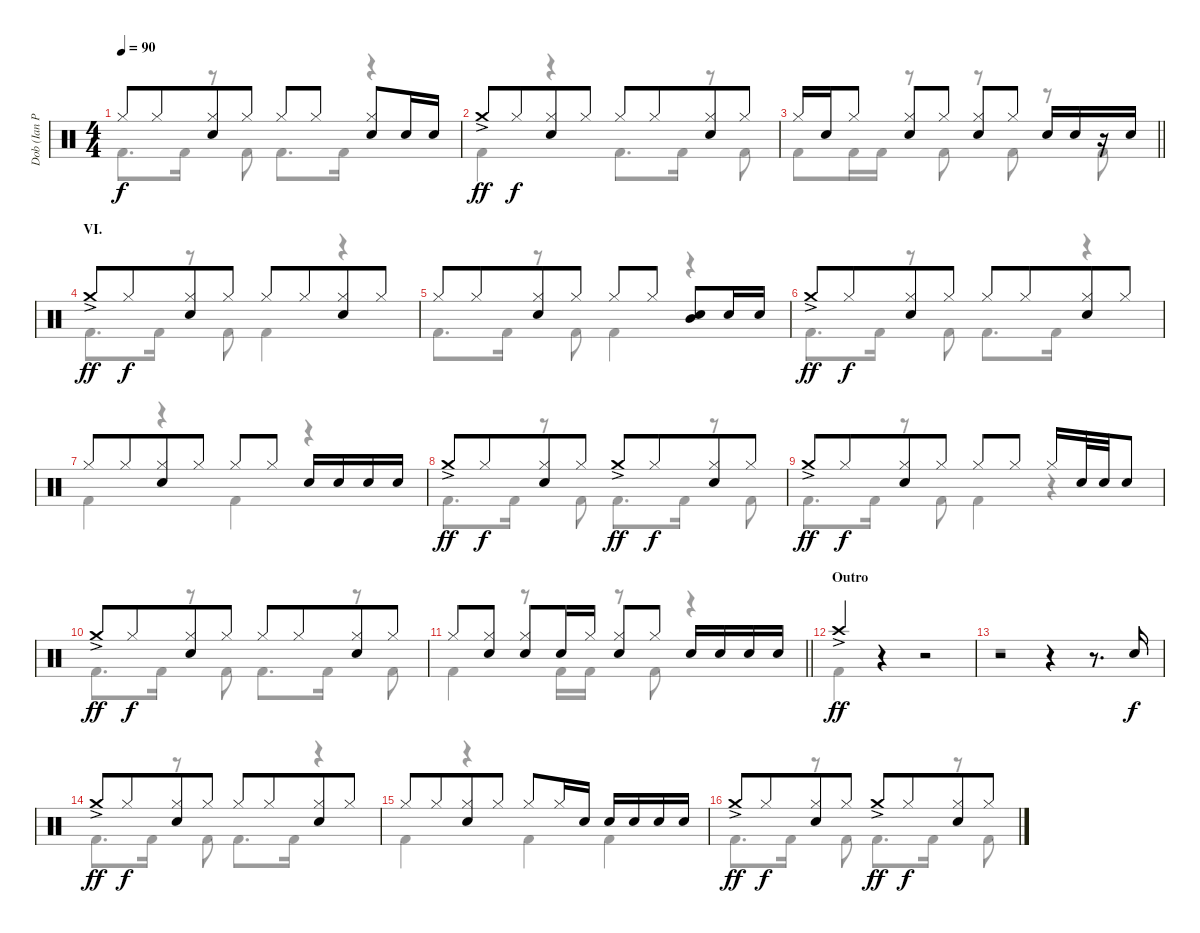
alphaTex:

\track ("Dob (Ian Paice)" "Dob (Ian P") {instrument percussion}
\staff {score}
\articulation defaults
\voice
\ts (4 4)
\tempo 90
\clef neutral
\ks c "Hi-Hat (closed)".8{dy f} "Hi-Hat (closed)".8{beam merge}
("Hi-Hat (closed)" "Electric Snare (hit)").8 "Hi-Hat (closed)".8 "Hi-Hat (closed)".8 "Hi-Hat (closed)".8 ("Hi-Hat (closed)" "Electric Snare (hit)").8 "Electric Snare (hit)".16 "Electric Snare (hit)".16 |
"Crash medium (hit)"{ac}.8{dy ff} "Hi-Hat (closed)".8{dy f beam merge} ("Hi-Hat (closed)" "Electric Snare (hit)").8 "Hi-Hat (closed)".8 "Hi-Hat (closed)".8 "Hi-Hat (closed)".8{beam merge} ("Hi-Hat (closed)" "Electric Snare (hit)").8 "Hi-Hat (closed)".8 |
\barLineRight lightlight "Hi-Hat (closed)".16 "Electric Snare (hit)".16 "Hi-Hat (closed)".8{beam split}
("Hi-Hat (closed)" "Electric Snare (hit)").8 "Hi-Hat (closed)".8{beam split} ("Hi-Hat (closed)" "Electric Snare (hit)").8 "Hi-Hat (closed)".8 "Electric Snare (hit)".16 "Electric Snare (hit)".16 r.16 "Electric Snare (hit)".16 |
\section ("" "VI.")
"Crash medium (hit)"{ac}.8{dy ff} "Hi-Hat (closed)".8{dy f beam merge} ("Hi-Hat (closed)" "Electric Snare (hit)").8 "Hi-Hat (closed)".8 "Hi-Hat (closed)".8 "Hi-Hat (closed)".8{beam merge} ("Hi-Hat (closed)" "Electric Snare (hit)").8 "Hi-Hat (closed)".8 |
"Hi-Hat (closed)".8 "Hi-Hat (closed)".8{beam merge} ("Hi-Hat (closed)" "Electric Snare (hit)").8 "Hi-Hat (closed)".8 "Hi-Hat (closed)".8 "Hi-Hat (closed)".8 ("Mid Tom (hit)" "Electric Snare (hit)").8 "Electric Snare (hit)".16 "Electric Snare (hit)".16 |
"Crash medium (hit)"{ac}.8{dy ff} "Hi-Hat (closed)".8{dy f beam merge} ("Hi-Hat (closed)" "Electric Snare (hit)").8 "Hi-Hat (closed)".8 "Hi-Hat (closed)".8 "Hi-Hat (closed)".8{beam merge} ("Hi-Hat (closed)" "Electric Snare (hit)").8 "Hi-Hat (closed)".8 |
"Hi-Hat (closed)".8 "Hi-Hat (closed)".8{beam merge} ("Hi-Hat (closed)" "Electric Snare (hit)").8 "Hi-Hat (closed)".8 "Hi-Hat (closed)".8 "Hi-Hat (closed)".8 "Electric Snare (hit)".16 "Electric Snare (hit)".16 "Electric Snare (hit)".16 "Electric Snare (hit)".16 |
"Crash medium (hit)"{ac}.8{dy ff} "Hi-Hat (closed)".8{dy f beam merge} ("Hi-Hat (closed)" "Electric Snare (hit)").8 "Hi-Hat (closed)".8 "Crash medium (hit)"{ac}.8{dy ff} "Hi-Hat (closed)".8{dy f beam merge} ("Hi-Hat (closed)" "Electric Snare (hit)").8 "Hi-Hat (closed)".8 |
"Crash medium (hit)"{ac}.8{dy ff} "Hi-Hat (closed)".8{dy f beam merge} ("Hi-Hat (closed)" "Electric Snare (hit)").8 "Hi-Hat (closed)".8 "Hi-Hat (closed)".8 "Hi-Hat (closed)".8 "Hi-Hat (closed)".16 "Electric Snare (hit)".32 "Electric Snare (hit)".32 "Electric Snare (hit)".8 |
"Crash medium (hit)"{ac}.8{dy ff} "Hi-Hat (closed)".8{dy f beam merge} ("Hi-Hat (closed)" "Electric Snare (hit)").8 "Hi-Hat (closed)".8 "Hi-Hat (closed)".8 "Hi-Hat (closed)".8{beam merge} ("Hi-Hat (closed)" "Electric Snare (hit)").8 "Hi-Hat (closed)".8 |
\barLineRight lightlight "Hi-Hat (closed)".8{beam merge}
("Hi-Hat (closed)" "Electric Snare (hit)").8{beam split} ("Hi-Hat (closed)" "Electric Snare (hit)").8 "Electric Snare (hit)".16 "Hi-Hat (closed)".16{beam split} ("Hi-Hat (closed)" "Electric Snare (hit)").8 "Hi-Hat (closed)".8 "Electric Snare (hit)".16 "Electric Snare (hit)".16 "Electric Snare (hit)".16 "Electric Snare (hit)".16 |
\section ("" "Outro")
"Crash high (hit)"{ac}.4{dy ff} r.4 r.2 |
r.2 r.4 r.8{d} "Electric Snare (hit)".16{dy f} |
"Crash medium (hit)"{ac}.8{dy ff} "Hi-Hat (closed)".8{dy f beam merge} ("Hi-Hat (closed)" "Electric Snare (hit)").8 "Hi-Hat (closed)".8 "Hi-Hat (closed)".8 "Hi-Hat (closed)".8{beam merge} ("Hi-Hat (closed)" "Electric Snare (hit)").8 "Hi-Hat (closed)".8 |
"Hi-Hat (closed)".8 "Hi-Hat (closed)".8{beam merge} ("Hi-Hat (closed)" "Electric Snare (hit)").8 "Hi-Hat (closed)".8 "Hi-Hat (closed)".8 "Hi-Hat (closed)".16 "Electric Snare (hit)".16 "Electric Snare (hit)".16 "Electric Snare (hit)".16 "Electric Snare (hit)".16 "Electric Snare (hit)".16 |
"Crash medium (hit)"{ac}.8{dy ff} "Hi-Hat (closed)".8{dy f beam merge} ("Hi-Hat (closed)" "Electric Snare (hit)").8 "Hi-Hat (closed)".8 "Crash medium (hit)"{ac}.8{dy ff} "Hi-Hat (closed)".8{dy f beam merge} ("Hi-Hat (closed)" "Electric Snare (hit)").8 "Hi-Hat (closed)".8
\voice
\clef neutral
\ottava regular
\simile none
\ks c "Kick (hit) 2".8{d dy f} "Kick (hit) 2".16
r.8 "Kick (hit) 2".8 "Kick (hit) 2".8{d} "Kick (hit) 2".16 r.4 |
"Kick (hit) 2".4 r.4 "Kick (hit) 2".8{d} "Kick (hit) 2".16 r.8 "Kick (hit) 2".8 |
\barLineRight lightlight "Kick (hit) 2".8 "Kick (hit) 2".16 "Kick (hit) 2".16
r.8 "Kick (hit) 2".8 r.8 "Kick (hit) 2".8 r.8 "Kick (hit) 2".8 |
"Kick (hit) 2".8{d} "Kick (hit) 2".16 r.8 "Kick (hit) 2".8 "Kick (hit) 2".4 r.4 |
"Kick (hit) 2".8{d} "Kick (hit) 2".16 r.8 "Kick (hit) 2".8 "Kick (hit) 2".4 r.4 |
"Kick (hit) 2".8{d} "Kick (hit) 2".16 r.8 "Kick (hit) 2".8 "Kick (hit) 2".8{d} "Kick (hit) 2".16 r.4 |
"Kick (hit) 2".4 r.4 "Kick (hit) 2".4 r.4 |
"Kick (hit) 2".8{d} "Kick (hit) 2".16 r.8 "Kick (hit) 2".8 "Kick (hit) 2".8{d} "Kick (hit) 2".16 r.8 "Kick (hit) 2".8 |
"Kick (hit) 2".8{d} "Kick (hit) 2".16 r.8 "Kick (hit) 2".8 "Kick (hit) 2".4 r.4 |
"Kick (hit) 2".8{d} "Kick (hit) 2".16 r.8 "Kick (hit) 2".8 "Kick (hit) 2".8{d} "Kick (hit) 2".16 r.8 "Kick (hit) 2".8 |
\barLineRight lightlight "Kick (hit) 2".4
r.8 "Kick (hit) 2".16 "Kick (hit) 2".16 r.8 "Kick (hit) 2".8 r.4 |
"Kick (hit) 2".4 r.4 r.2 |
r.1 |
"Kick (hit) 2".8{d} "Kick (hit) 2".16 r.8 "Kick (hit) 2".8 "Kick (hit) 2".8{d} "Kick (hit) 2".16 r.4 |
"Kick (hit) 2".4 r.4 "Kick (hit) 2".4 "Kick (hit) 2".4 |
"Kick (hit) 2".8{d} "Kick (hit) 2".16 r.8 "Kick (hit) 2".8 "Kick (hit) 2".8{d} "Kick (hit) 2".16 r.8 "Kick (hit) 2".8
